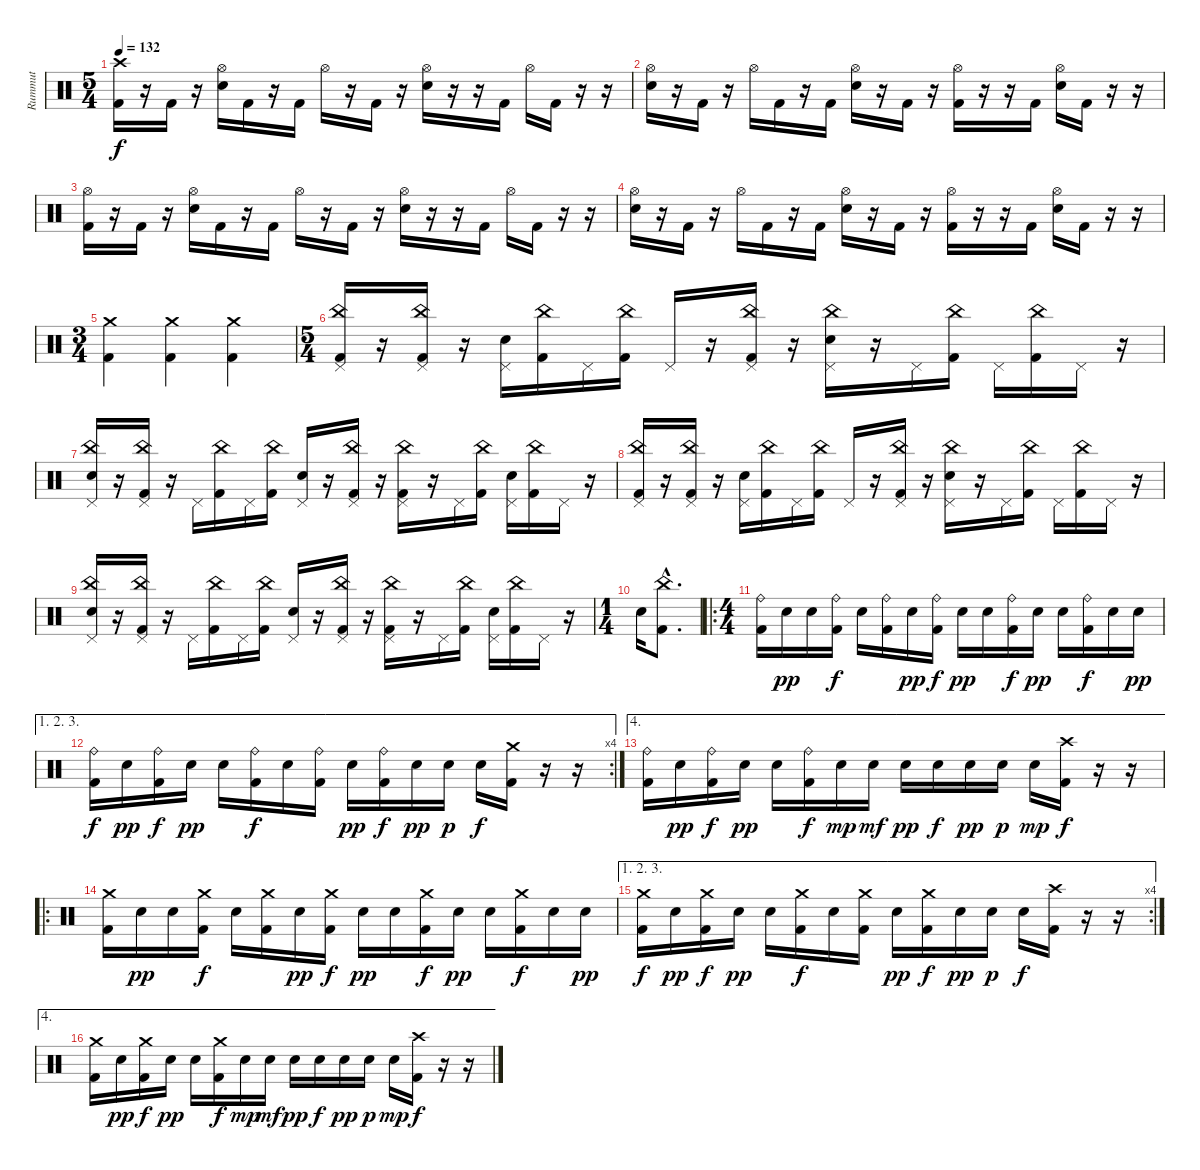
\track ("Rummut" "Rummut") {instrument percussion}
\staff {score}
\articulation defaults
\ts (5 4)
\tempo 132
\clef neutral
\ks c
("Crash high (hit)" "Kick (hit) 2").16{dy f} r.16 "Kick (hit) 2".16 r.16 ("Hi-Hat (open)" "Electric Snare (hit)").16 "Kick (hit) 2".16 r.16 "Kick (hit) 2".16 "Hi-Hat (open)".16 r.16 "Kick (hit) 2".16 r.16 ("Hi-Hat (open)" "Electric Snare (hit)").16 r.16 r.16 "Kick (hit) 2".16 "Hi-Hat (open)".16 "Kick (hit) 2".16 r.16 r.16 |
("Hi-Hat (open)" "Electric Snare (hit)").16 r.16 "Kick (hit) 2".16 r.16 "Hi-Hat (open)".16 "Kick (hit) 2".16 r.16 "Kick (hit) 2".16 ("Hi-Hat (open)" "Electric Snare (hit)").16 r.16 "Kick (hit) 2".16 r.16 ("Hi-Hat (open)" "Kick (hit) 2").16 r.16 r.16 "Kick (hit) 2".16 ("Hi-Hat (open)" "Electric Snare (hit)").16 "Kick (hit) 2".16 r.16 r.16 |
("Hi-Hat (open)" "Kick (hit) 2").16 r.16 "Kick (hit) 2".16 r.16 ("Hi-Hat (open)" "Electric Snare (hit)").16 "Kick (hit) 2".16 r.16 "Kick (hit) 2".16 "Hi-Hat (open)".16 r.16 "Kick (hit) 2".16 r.16 ("Hi-Hat (open)" "Electric Snare (hit)").16 r.16 r.16 "Kick (hit) 2".16 "Hi-Hat (open)".16 "Kick (hit) 2".16 r.16 r.16 |
("Hi-Hat (open)" "Electric Snare (hit)").16 r.16 "Kick (hit) 2".16 r.16 "Hi-Hat (open)".16 "Kick (hit) 2".16 r.16 "Kick (hit) 2".16 ("Hi-Hat (open)" "Electric Snare (hit)").16 r.16 "Kick (hit) 2".16 r.16 ("Hi-Hat (open)" "Kick (hit) 2").16 r.16 r.16 "Kick (hit) 2".16 ("Hi-Hat (open)" "Electric Snare (hit)").16 "Kick (hit) 2".16 r.16 r.16 |
\ts (3 4)
("Crash medium (hit)" "Kick (hit) 2").4 ("Crash medium (hit)" "Kick (hit) 2").4 ("Crash medium (hit)" "Kick (hit) 2").4 |
\ts (5 4)
("China (hit)" "Pedal Hi-Hat (hit)" "Kick (hit) 2").16 r.16 ("China (hit)" "Pedal Hi-Hat (hit)" "Kick (hit) 2").16 r.16 ("Pedal Hi-Hat (hit)" "Electric Snare (hit)").16 ("China (hit)" "Kick (hit) 2").16 "Pedal Hi-Hat (hit)".16 ("China (hit)" "Kick (hit) 2").16 "Pedal Hi-Hat (hit)".16 r.16 ("China (hit)" "Pedal Hi-Hat (hit)" "Kick (hit) 2").16 r.16 ("China (hit)" "Pedal Hi-Hat (hit)" "Electric Snare (hit)").16 r.16 "Pedal Hi-Hat (hit)".16 ("China (hit)" "Kick (hit) 2").16 "Pedal Hi-Hat (hit)".16 ("China (hit)" "Kick (hit) 2").16 "Pedal Hi-Hat (hit)".16 r.16 |
("China (hit)" "Pedal Hi-Hat (hit)" "Electric Snare (hit)").16 r.16 ("China (hit)" "Pedal Hi-Hat (hit)" "Kick (hit) 2").16 r.16 "Pedal Hi-Hat (hit)".16 ("China (hit)" "Kick (hit) 2").16 "Pedal Hi-Hat (hit)".16 ("China (hit)" "Kick (hit) 2").16 ("Pedal Hi-Hat (hit)" "Electric Snare (hit)").16 r.16 ("China (hit)" "Pedal Hi-Hat (hit)" "Kick (hit) 2").16 r.16 ("China (hit)" "Pedal Hi-Hat (hit)" "Kick (hit) 2").16 r.16 "Pedal Hi-Hat (hit)".16 ("China (hit)" "Kick (hit) 2").16 ("Pedal Hi-Hat (hit)" "Electric Snare (hit)").16 ("China (hit)" "Kick (hit) 2").16 "Pedal Hi-Hat (hit)".16 r.16 |
("China (hit)" "Pedal Hi-Hat (hit)" "Kick (hit) 2").16 r.16 ("China (hit)" "Pedal Hi-Hat (hit)" "Kick (hit) 2").16 r.16 ("Pedal Hi-Hat (hit)" "Electric Snare (hit)").16 ("China (hit)" "Kick (hit) 2").16 "Pedal Hi-Hat (hit)".16 ("China (hit)" "Kick (hit) 2").16 "Pedal Hi-Hat (hit)".16 r.16 ("China (hit)" "Pedal Hi-Hat (hit)" "Kick (hit) 2").16 r.16 ("China (hit)" "Pedal Hi-Hat (hit)" "Electric Snare (hit)").16 r.16 "Pedal Hi-Hat (hit)".16 ("China (hit)" "Kick (hit) 2").16 "Pedal Hi-Hat (hit)".16 ("China (hit)" "Kick (hit) 2").16 "Pedal Hi-Hat (hit)".16 r.16 |
("China (hit)" "Pedal Hi-Hat (hit)" "Electric Snare (hit)").16 r.16 ("China (hit)" "Pedal Hi-Hat (hit)" "Kick (hit) 2").16 r.16 "Pedal Hi-Hat (hit)".16 ("China (hit)" "Kick (hit) 2").16 "Pedal Hi-Hat (hit)".16 ("China (hit)" "Kick (hit) 2").16 ("Pedal Hi-Hat (hit)" "Electric Snare (hit)").16 r.16 ("China (hit)" "Pedal Hi-Hat (hit)" "Kick (hit) 2").16 r.16 ("China (hit)" "Pedal Hi-Hat (hit)" "Kick (hit) 2").16 r.16 "Pedal Hi-Hat (hit)".16 ("China (hit)" "Kick (hit) 2").16 ("Pedal Hi-Hat (hit)" "Electric Snare (hit)").16 ("China (hit)" "Kick (hit) 2").16 "Pedal Hi-Hat (hit)".16 r.16 |
\ts (1 4)
"Electric Snare (hit)".16 ("China (hit)"{hac} "Kick (hit) 2"{hac}).8{d} |
\ro
\ts (4 4)
("Ride (bell)" "Kick (hit) 2").16 "Electric Snare (hit)".16{dy pp} "Electric Snare (hit)".16 ("Ride (bell)" "Kick (hit) 2").16{dy f} "Electric Snare (hit)".16 ("Ride (bell)" "Kick (hit) 2").16 "Electric Snare (hit)".16{dy pp} ("Ride (bell)" "Kick (hit) 2").16{dy f} "Electric Snare (hit)".16{dy pp} "Electric Snare (hit)".16 ("Ride (bell)" "Kick (hit) 2").16{dy f} "Electric Snare (hit)".16{dy pp} "Electric Snare (hit)".16 ("Ride (bell)" "Kick (hit) 2").16{dy f} "Electric Snare (hit)".16 "Electric Snare (hit)".16{dy pp} |
\ae (1 2 3)
\rc 4
("Ride (bell)" "Kick (hit) 2").16{dy f} "Electric Snare (hit)".16{dy pp} ("Ride (bell)" "Kick (hit) 2").16{dy f} "Electric Snare (hit)".16{dy pp} "Electric Snare (hit)".16 ("Ride (bell)" "Kick (hit) 2").16{dy f} "Electric Snare (hit)".16 ("Ride (bell)" "Kick (hit) 2").16 "Electric Snare (hit)".16{dy pp} ("Ride (bell)" "Kick (hit) 2").16{dy f} "Electric Snare (hit)".16{dy pp} "Electric Snare (hit)".16{dy p} "Electric Snare (hit)".16{dy f} ("Crash medium (hit)" "Kick (hit) 2").16 r.16 r.16 |
\ae 4
("Ride (bell)" "Kick (hit) 2").16 "Electric Snare (hit)".16{dy pp} ("Ride (bell)" "Kick (hit) 2").16{dy f} "Electric Snare (hit)".16{dy pp} "Electric Snare (hit)".16 ("Ride (bell)" "Kick (hit) 2").16{dy f} "Electric Snare (hit)".16{dy mp} "Electric Snare (hit)".16{dy mf} "Electric Snare (hit)".16{dy pp} "Electric Snare (hit)".16{dy f} "Electric Snare (hit)".16{dy pp} "Electric Snare (hit)".16{dy p} "Electric Snare (hit)".16{dy mp} ("Crash high (hit)" "Kick (hit) 2").16{dy f} r.16 r.16 |
\ro
("Crash medium (hit)" "Kick (hit) 2").16 "Electric Snare (hit)".16{dy pp} "Electric Snare (hit)".16 ("Crash medium (hit)" "Kick (hit) 2").16{dy f} "Electric Snare (hit)".16 ("Crash medium (hit)" "Kick (hit) 2").16 "Electric Snare (hit)".16{dy pp} ("Crash medium (hit)" "Kick (hit) 2").16{dy f} "Electric Snare (hit)".16{dy pp} "Electric Snare (hit)".16 ("Crash medium (hit)" "Kick (hit) 2").16{dy f} "Electric Snare (hit)".16{dy pp} "Electric Snare (hit)".16 ("Crash medium (hit)" "Kick (hit) 2").16{dy f} "Electric Snare (hit)".16 "Electric Snare (hit)".16{dy pp} |
\ae (1 2 3)
\rc 4
("Crash medium (hit)" "Kick (hit) 2").16{dy f} "Electric Snare (hit)".16{dy pp} ("Crash medium (hit)" "Kick (hit) 2").16{dy f} "Electric Snare (hit)".16{dy pp} "Electric Snare (hit)".16 ("Crash medium (hit)" "Kick (hit) 2").16{dy f} "Electric Snare (hit)".16 ("Crash medium (hit)" "Kick (hit) 2").16 "Electric Snare (hit)".16{dy pp} ("Crash medium (hit)" "Kick (hit) 2").16{dy f} "Electric Snare (hit)".16{dy pp} "Electric Snare (hit)".16{dy p} "Electric Snare (hit)".16{dy f} ("Crash high (hit)" "Kick (hit) 2").16 r.16 r.16 |
\ae 4
("Crash medium (hit)" "Kick (hit) 2").16 "Electric Snare (hit)".16{dy pp} ("Crash medium (hit)" "Kick (hit) 2").16{dy f} "Electric Snare (hit)".16{dy pp} "Electric Snare (hit)".16 ("Crash medium (hit)" "Kick (hit) 2").16{dy f} "Electric Snare (hit)".16{dy mp} "Electric Snare (hit)".16{dy mf} "Electric Snare (hit)".16{dy pp} "Electric Snare (hit)".16{dy f} "Electric Snare (hit)".16{dy pp} "Electric Snare (hit)".16{dy p} "Electric Snare (hit)".16{dy mp} ("Crash high (hit)" "Kick (hit) 2").16{dy f} r.16 r.16
